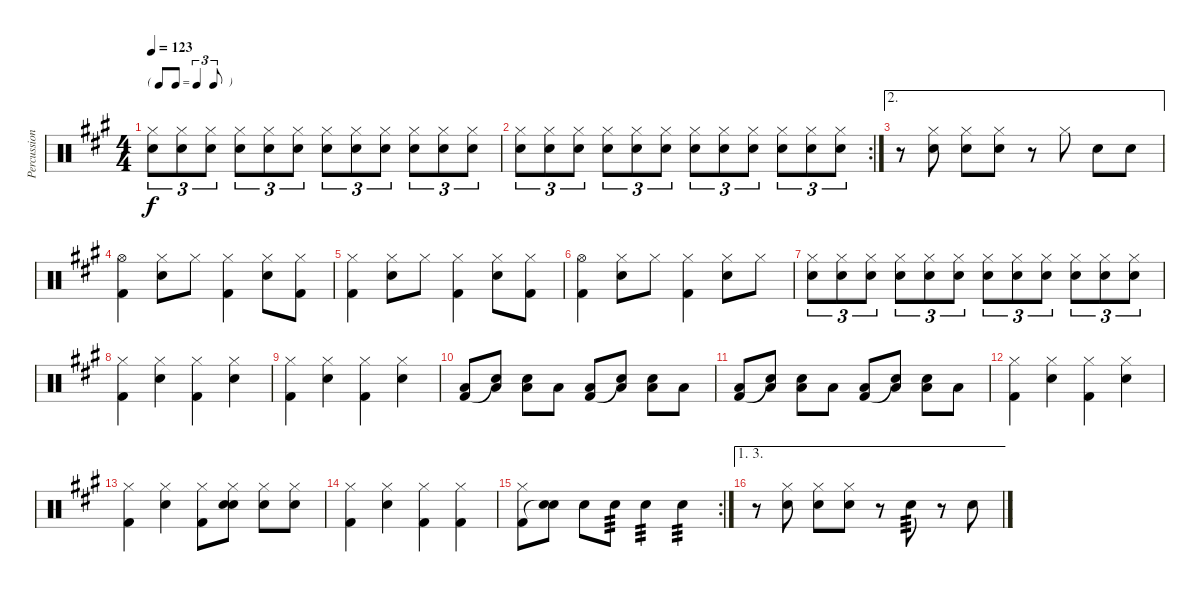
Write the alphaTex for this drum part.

\track ("Percussion" "Percussion") {instrument percussion}
\staff {score}
\articulation defaults
\ts (4 4)
\tf triplet8th
\tempo 123
\clef neutral
\ks a
("Hi-Hat (closed)" "Snare (hit) 2").8{tu (3 2) dy f} ("Hi-Hat (closed)" "Snare (hit) 2").8{tu (3 2)} ("Hi-Hat (closed)" "Snare (hit) 2").8{tu (3 2)} ("Hi-Hat (closed)" "Snare (hit) 2").8{tu (3 2)} ("Hi-Hat (closed)" "Snare (hit) 2").8{tu (3 2)} ("Hi-Hat (closed)" "Snare (hit) 2").8{tu (3 2)} ("Hi-Hat (closed)" "Snare (hit) 2").8{tu (3 2)} ("Hi-Hat (closed)" "Snare (hit) 2").8{tu (3 2)} ("Hi-Hat (closed)" "Snare (hit) 2").8{tu (3 2)} ("Hi-Hat (closed)" "Snare (hit) 2").8{tu (3 2)} ("Hi-Hat (closed)" "Snare (hit) 2").8{tu (3 2)} ("Hi-Hat (closed)" "Snare (hit) 2").8{tu (3 2)} |
\rc 2
("Hi-Hat (closed)" "Snare (hit) 2").8{tu (3 2)} ("Hi-Hat (closed)" "Snare (hit) 2").8{tu (3 2)} ("Hi-Hat (closed)" "Snare (hit) 2").8{tu (3 2)} ("Hi-Hat (closed)" "Snare (hit) 2").8{tu (3 2)} ("Hi-Hat (closed)" "Snare (hit) 2").8{tu (3 2)} ("Hi-Hat (closed)" "Snare (hit) 2").8{tu (3 2)} ("Hi-Hat (closed)" "Snare (hit) 2").8{tu (3 2)} ("Hi-Hat (closed)" "Snare (hit) 2").8{tu (3 2)} ("Hi-Hat (closed)" "Snare (hit) 2").8{tu (3 2)} ("Hi-Hat (closed)" "Snare (hit) 2").8{tu (3 2)} ("Hi-Hat (closed)" "Snare (hit) 2").8{tu (3 2)} ("Hi-Hat (closed)" "Snare (hit) 2").8{tu (3 2)} |
\ae 2
r.8 ("Hi-Hat (closed)" "Snare (hit) 2").8 ("Hi-Hat (closed)" "Snare (hit) 2").8 ("Hi-Hat (closed)" "Snare (hit) 2").8 r.8 "Hi-Hat (closed)".8 "Snare (hit) 2".8 "Snare (hit) 2".8 |
("Hi-Hat (open)" "Kick (hit) 2").4 ("Hi-Hat (closed)" "Snare (hit) 2").8 "Hi-Hat (closed)".8 ("Hi-Hat (closed)" "Kick (hit) 2").4 ("Hi-Hat (closed)" "Snare (hit) 2").8 ("Hi-Hat (closed)" "Kick (hit) 2").8 |
("Hi-Hat (closed)" "Kick (hit) 2").4 ("Hi-Hat (closed)" "Snare (hit) 2").8 "Hi-Hat (closed)".8 ("Hi-Hat (closed)" "Kick (hit) 2").4 ("Hi-Hat (closed)" "Snare (hit) 2").8 ("Hi-Hat (closed)" "Kick (hit) 2").8 |
("Hi-Hat (open)" "Kick (hit) 2").4 ("Hi-Hat (closed)" "Snare (hit) 2").8 "Hi-Hat (closed)".8 ("Hi-Hat (closed)" "Kick (hit) 2").4 ("Hi-Hat (closed)" "Snare (hit) 2").8 "Hi-Hat (closed)".8 |
("Hi-Hat (closed)" "Snare (hit) 2").8{tu (3 2)} ("Hi-Hat (closed)" "Snare (hit) 2").8{tu (3 2)} ("Hi-Hat (closed)" "Snare (hit) 2").8{tu (3 2)} ("Hi-Hat (closed)" "Snare (hit) 2").8{tu (3 2)} ("Hi-Hat (closed)" "Snare (hit) 2").8{tu (3 2)} ("Hi-Hat (closed)" "Snare (hit) 2").8{tu (3 2)} ("Hi-Hat (closed)" "Snare (hit) 2").8{tu (3 2)} ("Hi-Hat (closed)" "Snare (hit) 2").8{tu (3 2)} ("Hi-Hat (closed)" "Snare (hit) 2").8{tu (3 2)} ("Hi-Hat (closed)" "Snare (hit) 2").8{tu (3 2)} ("Hi-Hat (closed)" "Snare (hit) 2").8{tu (3 2)} ("Hi-Hat (closed)" "Snare (hit) 2").8{tu (3 2)} |
("Hi-Hat (closed)" "Kick (hit) 2").4 ("Hi-Hat (closed)" "Snare (hit) 2").4 ("Hi-Hat (closed)" "Kick (hit) 2").4 ("Hi-Hat (closed)" "Snare (hit) 2").4 |
("Hi-Hat (closed)" "Kick (hit) 2").4 ("Hi-Hat (closed)" "Snare (hit) 2").4 ("Hi-Hat (closed)" "Kick (hit) 2").4 ("Hi-Hat (closed)" "Snare (hit) 2").4 |
("Low Tom (hit)" "Kick (hit) 2").8 ("Low Tom (hit)" "Snare (hit)"{t}).8 ("Snare (hit) 2" "Low Tom (hit)").8 "Low Tom (hit)".8 ("Low Tom (hit)" "Kick (hit) 2").8 ("Low Tom (hit)" "Snare (hit)"{t}).8 ("Snare (hit) 2" "Low Tom (hit)").8 "Low Tom (hit)".8 |
("Low Tom (hit)" "Kick (hit) 2").8 ("Low Tom (hit)" "Snare (hit)"{t}).8 ("Snare (hit) 2" "Low Tom (hit)").8 "Low Tom (hit)".8 ("Low Tom (hit)" "Kick (hit) 2").8 ("Low Tom (hit)" "Snare (hit)"{t}).8 ("Snare (hit) 2" "Low Tom (hit)").8 "Low Tom (hit)".8 |
("Hi-Hat (closed)" "Kick (hit) 2").4 ("Hi-Hat (closed)" "Snare (hit) 2").4 ("Hi-Hat (closed)" "Kick (hit) 2").4 ("Hi-Hat (closed)" "Snare (hit) 2").4 |
("Hi-Hat (closed)" "Kick (hit) 2").4 ("Hi-Hat (closed)" "Snare (hit) 2").4 ("Hi-Hat (closed)" "Kick (hit) 2").8 ("Hi-Hat (closed)" "Snare (hit) 2" "Snare (hit)").8 ("Hi-Hat (closed)" "Snare (hit) 2").8 ("Hi-Hat (closed)" "Snare (hit) 2").8 |
("Hi-Hat (closed)" "Kick (hit) 2").4 ("Hi-Hat (closed)" "Snare (hit) 2").4 ("Hi-Hat (closed)" "Kick (hit) 2").4 ("Hi-Hat (closed)" "Kick (hit) 2").4 |
\rc 2
("Hi-Hat (closed)" "Kick (hit) 2").8 ("Snare (hit) 2" "Snare (hit)"{t}).8 "Snare (hit) 2".8 "Snare (hit) 2".8{tp 3} "Snare (hit) 2".4{tp 3} "Snare (hit) 2".4{tp 3} |
\ae (1 3)
r.8 ("Hi-Hat (closed)" "Snare (hit) 2").8 ("Hi-Hat (closed)" "Snare (hit) 2").8 ("Hi-Hat (closed)" "Snare (hit) 2").8 r.8 "Snare (hit) 2".8{tp 3} r.8 "Snare (hit) 2".8
